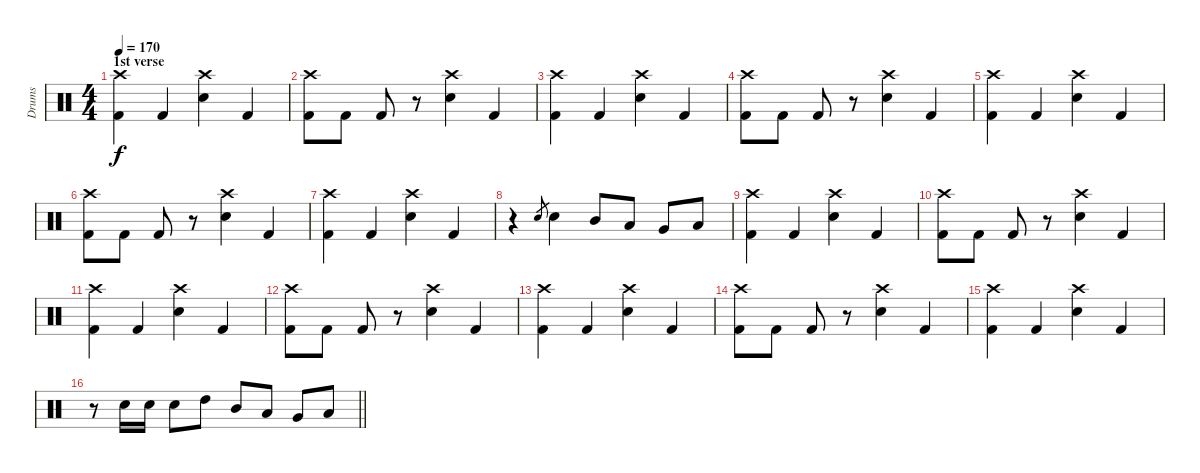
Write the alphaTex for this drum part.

\track ("Drums" "Drums") {instrument percussion}
\staff {score}
\articulation defaults
\ts (4 4)
\section ("" "1st verse")
\tempo 170
\clef neutral
\ks c
("Crash high (hit)" "Kick (hit) 2").4{dy f} "Kick (hit) 2".4 ("Crash high (hit)" "Snare (hit) 2").4 "Kick (hit) 2".4 |
("Crash high (hit)" "Kick (hit) 2").8 "Kick (hit) 2".8 "Kick (hit) 2".8 r.8 ("Crash high (hit)" "Snare (hit) 2").4 "Kick (hit) 2".4 |
("Crash high (hit)" "Kick (hit) 2").4 "Kick (hit) 2".4 ("Crash high (hit)" "Snare (hit) 2").4 "Kick (hit) 2".4 |
("Crash high (hit)" "Kick (hit) 2").8 "Kick (hit) 2".8 "Kick (hit) 2".8 r.8 ("Crash high (hit)" "Snare (hit) 2").4 "Kick (hit) 2".4 |
("Crash high (hit)" "Kick (hit) 2").4 "Kick (hit) 2".4 ("Crash high (hit)" "Snare (hit) 2").4 "Kick (hit) 2".4 |
("Crash high (hit)" "Kick (hit) 2").8 "Kick (hit) 2".8 "Kick (hit) 2".8 r.8 ("Crash high (hit)" "Snare (hit) 2").4 "Kick (hit) 2".4 |
("Crash high (hit)" "Kick (hit) 2").4 "Kick (hit) 2".4 ("Crash high (hit)" "Snare (hit) 2").4 "Kick (hit) 2".4 |
r.4 "Snare (hit) 2".8{gr} "Snare (hit) 2".4 "Mid Tom (hit)".8 "Low Tom (hit)".8 "Very Low Tom (hit)".8 "Low Floor Tom (hit)".8 |
("Crash high (hit)" "Kick (hit) 2").4 "Kick (hit) 2".4 ("Crash high (hit)" "Snare (hit) 2").4 "Kick (hit) 2".4 |
("Crash high (hit)" "Kick (hit) 2").8 "Kick (hit) 2".8 "Kick (hit) 2".8 r.8 ("Crash high (hit)" "Snare (hit) 2").4 "Kick (hit) 2".4 |
("Crash high (hit)" "Kick (hit) 2").4 "Kick (hit) 2".4 ("Crash high (hit)" "Snare (hit) 2").4 "Kick (hit) 2".4 |
("Crash high (hit)" "Kick (hit) 2").8 "Kick (hit) 2".8 "Kick (hit) 2".8 r.8 ("Crash high (hit)" "Snare (hit) 2").4 "Kick (hit) 2".4 |
("Crash high (hit)" "Kick (hit) 2").4 "Kick (hit) 2".4 ("Crash high (hit)" "Snare (hit) 2").4 "Kick (hit) 2".4 |
("Crash high (hit)" "Kick (hit) 2").8 "Kick (hit) 2".8 "Kick (hit) 2".8 r.8 ("Crash high (hit)" "Snare (hit) 2").4 "Kick (hit) 2".4 |
("Crash high (hit)" "Kick (hit) 2").4 "Kick (hit) 2".4 ("Crash high (hit)" "Snare (hit) 2").4 "Kick (hit) 2".4 |
\barLineRight lightlight
r.8 "Snare (hit) 2".16 "Snare (hit) 2".16 "Snare (hit) 2".8 "High Tom (hit)".8 "Mid Tom (hit)".8 "Low Tom (hit)".8 "Very Low Tom (hit)".8 "Low Floor Tom (hit)".8
